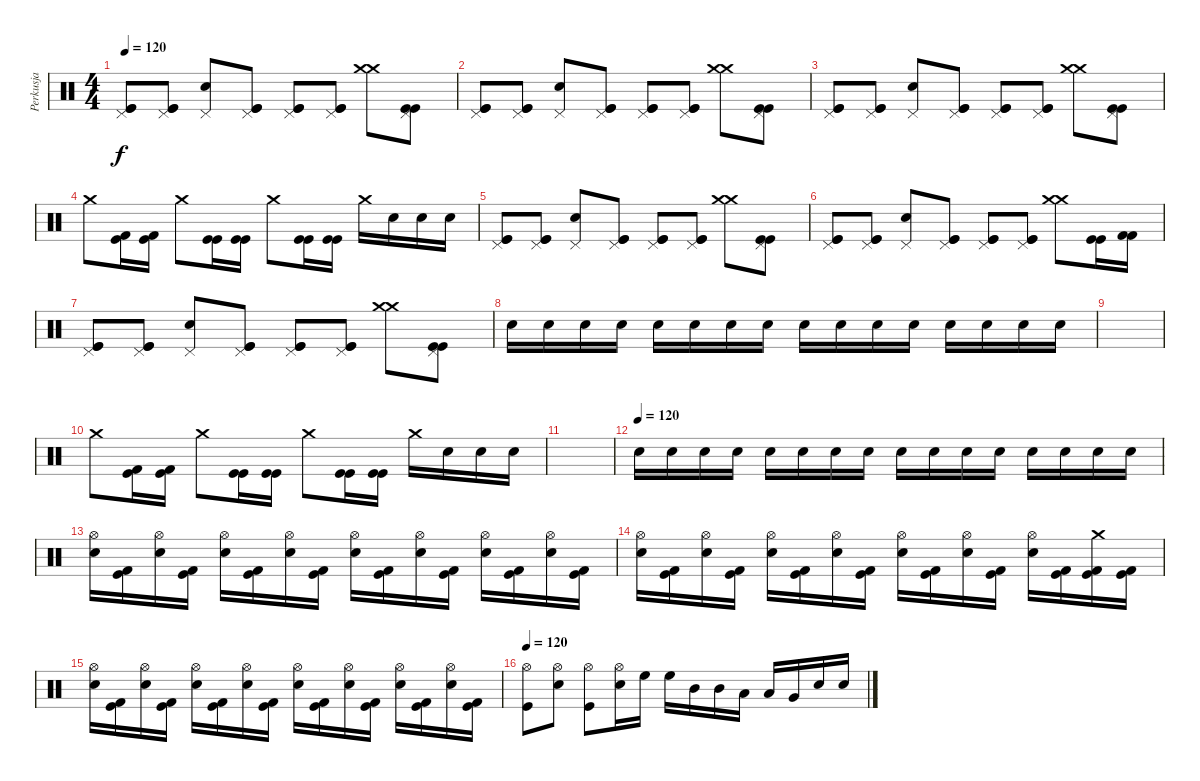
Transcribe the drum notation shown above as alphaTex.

\track ("Perkusja" "Perkusja") {instrument percussion}
\staff {score}
\articulation defaults
\ts (4 4)
\tempo 120
\clef neutral
\ks c
("Pedal Hi-Hat (hit)" "Kick (hit)" "Kick (hit)").8{dy f} ("Pedal Hi-Hat (hit)" "Kick (hit)" "Kick (hit)").8 ("Pedal Hi-Hat (hit)" "Snare (hit) 2").8 ("Pedal Hi-Hat (hit)" "Kick (hit)" "Kick (hit)").8 ("Pedal Hi-Hat (hit)" "Kick (hit)" "Kick (hit)").8 ("Pedal Hi-Hat (hit)" "Kick (hit)" "Kick (hit)").8 ("Crash medium (hit)" "Crash medium (hit)").8 ("Pedal Hi-Hat (hit)" "Kick (hit)" "Kick (hit)").8 |
("Pedal Hi-Hat (hit)" "Kick (hit)" "Kick (hit)").8 ("Pedal Hi-Hat (hit)" "Kick (hit)" "Kick (hit)").8 ("Pedal Hi-Hat (hit)" "Snare (hit) 2").8 ("Pedal Hi-Hat (hit)" "Kick (hit)" "Kick (hit)").8 ("Pedal Hi-Hat (hit)" "Kick (hit)" "Kick (hit)").8 ("Pedal Hi-Hat (hit)" "Kick (hit)" "Kick (hit)").8 ("Crash medium (hit)" "Crash medium (hit)").8 ("Pedal Hi-Hat (hit)" "Kick (hit)" "Kick (hit)").8 |
("Pedal Hi-Hat (hit)" "Kick (hit)" "Kick (hit)").8 ("Pedal Hi-Hat (hit)" "Kick (hit)" "Kick (hit)").8 ("Pedal Hi-Hat (hit)" "Snare (hit) 2").8 ("Pedal Hi-Hat (hit)" "Kick (hit)" "Kick (hit)").8 ("Pedal Hi-Hat (hit)" "Kick (hit)" "Kick (hit)").8 ("Pedal Hi-Hat (hit)" "Kick (hit)" "Kick (hit)").8 ("Crash medium (hit)" "Crash medium (hit)").8 ("Pedal Hi-Hat (hit)" "Kick (hit)" "Kick (hit)").8 |
"Crash medium (hit)".8 ("Kick (hit)" "Kick (hit) 2").16 ("Kick (hit)" "Kick (hit) 2").16 "Crash medium (hit)".8 ("Kick (hit)" "Kick (hit)").16 ("Kick (hit)" "Kick (hit)").16 "Crash medium (hit)".8 ("Kick (hit)" "Kick (hit)").16 ("Kick (hit)" "Kick (hit)").16 "Crash medium (hit)".16 "Snare (hit) 2".16 "Snare (hit) 2".16 "Snare (hit) 2".16 |
("Pedal Hi-Hat (hit)" "Kick (hit)" "Kick (hit)").8 ("Pedal Hi-Hat (hit)" "Kick (hit)" "Kick (hit)").8 ("Pedal Hi-Hat (hit)" "Snare (hit) 2").8 ("Pedal Hi-Hat (hit)" "Kick (hit)" "Kick (hit)").8 ("Pedal Hi-Hat (hit)" "Kick (hit)" "Kick (hit)").8 ("Pedal Hi-Hat (hit)" "Kick (hit)" "Kick (hit)").8 ("Crash medium (hit)" "Crash medium (hit)").8 ("Pedal Hi-Hat (hit)" "Kick (hit)" "Kick (hit)").8 |
("Pedal Hi-Hat (hit)" "Kick (hit)" "Kick (hit)").8 ("Pedal Hi-Hat (hit)" "Kick (hit)" "Kick (hit)").8 ("Pedal Hi-Hat (hit)" "Snare (hit) 2").8 ("Pedal Hi-Hat (hit)" "Kick (hit)" "Kick (hit)").8 ("Pedal Hi-Hat (hit)" "Kick (hit)" "Kick (hit)").8 ("Pedal Hi-Hat (hit)" "Kick (hit)" "Kick (hit)").8 ("Crash medium (hit)" "Crash medium (hit)").8 ("Kick (hit)" "Kick (hit)").16 ("Kick (hit) 2" "Kick (hit) 2").16 |
("Pedal Hi-Hat (hit)" "Kick (hit)" "Kick (hit)").8 ("Pedal Hi-Hat (hit)" "Kick (hit)" "Kick (hit)").8 ("Pedal Hi-Hat (hit)" "Snare (hit) 2").8 ("Pedal Hi-Hat (hit)" "Kick (hit)" "Kick (hit)").8 ("Pedal Hi-Hat (hit)" "Kick (hit)" "Kick (hit)").8 ("Pedal Hi-Hat (hit)" "Kick (hit)" "Kick (hit)").8 ("Crash medium (hit)" "Crash medium (hit)").8 ("Pedal Hi-Hat (hit)" "Kick (hit)" "Kick (hit)").8 |
"Snare (hit) 2".16{volume 3} "Snare (hit) 2".16{volume 4} "Snare (hit) 2".16{volume 5} "Snare (hit) 2".16{volume 5} "Snare (hit) 2".16{volume 7} "Snare (hit) 2".16{volume 7} "Snare (hit) 2".16{volume 7} "Snare (hit) 2".16{volume 7} "Snare (hit) 2".16{volume 8} "Snare (hit) 2".16{volume 10} "Snare (hit) 2".16{volume 11} "Snare (hit) 2".16{volume 12} "Snare (hit) 2".16{volume 12} "Snare (hit) 2".16{volume 13} "Snare (hit) 2".16 "Snare (hit) 2".16{volume 16} |
|
"Crash medium (hit)".8 ("Kick (hit)" "Kick (hit) 2").16 ("Kick (hit)" "Kick (hit) 2").16 "Crash medium (hit)".8 ("Kick (hit)" "Kick (hit)").16 ("Kick (hit)" "Kick (hit)").16 "Crash medium (hit)".8 ("Kick (hit)" "Kick (hit)").16 ("Kick (hit)" "Kick (hit)").16 "Crash medium (hit)".16 "Snare (hit) 2".16 "Snare (hit) 2".16 "Snare (hit) 2".16 |
|
\tempo (120)
"Snare (hit) 2".16{volume 3} "Snare (hit) 2".16{volume 4} "Snare (hit) 2".16{volume 5} "Snare (hit) 2".16{volume 5} "Snare (hit) 2".16{volume 7} "Snare (hit) 2".16{volume 7} "Snare (hit) 2".16{volume 7} "Snare (hit) 2".16{volume 7} "Snare (hit) 2".16{volume 8} "Snare (hit) 2".16{volume 10} "Snare (hit) 2".16{volume 11} "Snare (hit) 2".16{volume 12} "Snare (hit) 2".16{volume 12} "Snare (hit) 2".16{volume 13} "Snare (hit) 2".16 "Snare (hit) 2".16{volume 16} |
("Hi-Hat (open)" "Electric Snare (hit)").16 ("Kick (hit)" "Kick (hit) 2").16 ("Hi-Hat (open)" "Electric Snare (hit)").16 ("Kick (hit)" "Kick (hit) 2").16 ("Hi-Hat (open)" "Electric Snare (hit)").16 ("Kick (hit)" "Kick (hit) 2").16 ("Hi-Hat (open)" "Electric Snare (hit)").16 ("Kick (hit)" "Kick (hit) 2").16 ("Hi-Hat (open)" "Electric Snare (hit)").16 ("Kick (hit)" "Kick (hit) 2").16 ("Hi-Hat (open)" "Electric Snare (hit)").16 ("Kick (hit)" "Kick (hit) 2").16 ("Hi-Hat (open)" "Electric Snare (hit)").16 ("Kick (hit)" "Kick (hit) 2").16 ("Hi-Hat (open)" "Electric Snare (hit)").16 ("Kick (hit)" "Kick (hit) 2").16 |
("Hi-Hat (open)" "Electric Snare (hit)").16 ("Kick (hit)" "Kick (hit) 2").16 ("Hi-Hat (open)" "Electric Snare (hit)").16 ("Kick (hit)" "Kick (hit) 2").16 ("Hi-Hat (open)" "Electric Snare (hit)").16 ("Kick (hit)" "Kick (hit) 2").16 ("Hi-Hat (open)" "Electric Snare (hit)").16 ("Kick (hit)" "Kick (hit) 2").16 ("Hi-Hat (open)" "Electric Snare (hit)").16 ("Kick (hit)" "Kick (hit) 2").16 ("Hi-Hat (open)" "Electric Snare (hit)").16 ("Kick (hit)" "Kick (hit) 2").16 ("Hi-Hat (open)" "Electric Snare (hit)").16 ("Kick (hit)" "Kick (hit) 2").16 ("Crash medium (hit)" "Kick (hit) 2" "Kick (hit)").16 ("Kick (hit) 2" "Kick (hit)").16 |
("Hi-Hat (open)" "Electric Snare (hit)").16 ("Kick (hit)" "Kick (hit) 2").16 ("Hi-Hat (open)" "Electric Snare (hit)").16 ("Kick (hit)" "Kick (hit) 2").16 ("Hi-Hat (open)" "Electric Snare (hit)").16 ("Kick (hit)" "Kick (hit) 2").16 ("Hi-Hat (open)" "Electric Snare (hit)").16 ("Kick (hit)" "Kick (hit) 2").16 ("Hi-Hat (open)" "Electric Snare (hit)").16 ("Kick (hit)" "Kick (hit) 2").16 ("Hi-Hat (open)" "Electric Snare (hit)").16 ("Kick (hit)" "Kick (hit) 2").16 ("Hi-Hat (open)" "Electric Snare (hit)").16 ("Kick (hit)" "Kick (hit) 2").16 ("Hi-Hat (open)" "Electric Snare (hit)").16 ("Kick (hit)" "Kick (hit) 2").16 |
\tempo 120
("Hi-Hat (open)" "Kick (hit)").8 ("Hi-Hat (open)" "Snare (hit) 2").8 ("Hi-Hat (open)" "Kick (hit)").8 ("Hi-Hat (open)" "Snare (hit) 2").16 "High Floor Tom (hit)".16 "High Floor Tom (hit)".16 "Mid Tom (hit)".16 "Mid Tom (hit)".16 "Low Tom (hit)".16 "Low Tom (hit)".16 "Very Low Tom (hit)".16 "Electric Snare (hit)".16 "Snare (hit) 2".16
